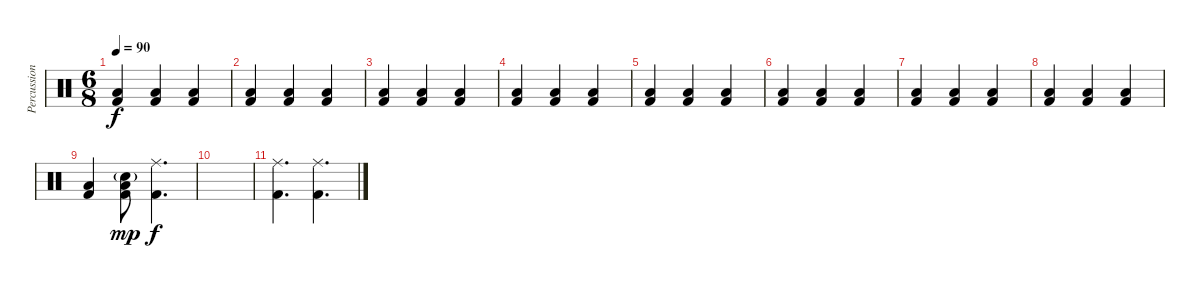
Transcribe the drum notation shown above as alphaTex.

\track ("Percussion" "Percussion") {instrument percussion}
\staff {score}
\articulation defaults
\ts (6 8)
\tempo 90
\clef neutral
\ks c
("Low Floor Tom (hit)" "Kick (hit) 2").4{dy f} ("Low Floor Tom (hit)" "Kick (hit) 2").4 ("Low Floor Tom (hit)" "Kick (hit) 2").4 |
("Low Floor Tom (hit)" "Kick (hit) 2").4 ("Low Floor Tom (hit)" "Kick (hit) 2").4 ("Low Floor Tom (hit)" "Kick (hit) 2").4 |
("Low Floor Tom (hit)" "Kick (hit) 2").4 ("Low Floor Tom (hit)" "Kick (hit) 2").4 ("Low Floor Tom (hit)" "Kick (hit) 2").4 |
("Low Floor Tom (hit)" "Kick (hit) 2").4 ("Low Floor Tom (hit)" "Kick (hit) 2").4 ("Low Floor Tom (hit)" "Kick (hit) 2").4 |
("Low Floor Tom (hit)" "Kick (hit) 2").4 ("Low Floor Tom (hit)" "Kick (hit) 2").4 ("Low Floor Tom (hit)" "Kick (hit) 2").4 |
("Low Floor Tom (hit)" "Kick (hit) 2").4 ("Low Floor Tom (hit)" "Kick (hit) 2").4 ("Low Floor Tom (hit)" "Kick (hit) 2").4 |
("Low Floor Tom (hit)" "Kick (hit) 2").4 ("Low Floor Tom (hit)" "Kick (hit) 2").4 ("Low Floor Tom (hit)" "Kick (hit) 2").4 |
("Low Floor Tom (hit)" "Kick (hit) 2").4 ("Low Floor Tom (hit)" "Kick (hit) 2").4 ("Low Floor Tom (hit)" "Kick (hit) 2").4 |
("Low Floor Tom (hit)" "Kick (hit) 2").4 ("Snare (hit) 2"{g} "Low Floor Tom (hit)" "Kick (hit) 2").8{dy mp} ("Ride (middle)" "Kick (hit) 2").4{d dy f} |
|
("Ride (middle)" "Kick (hit) 2").4{d} ("Ride (middle)" "Kick (hit) 2").4{d}
